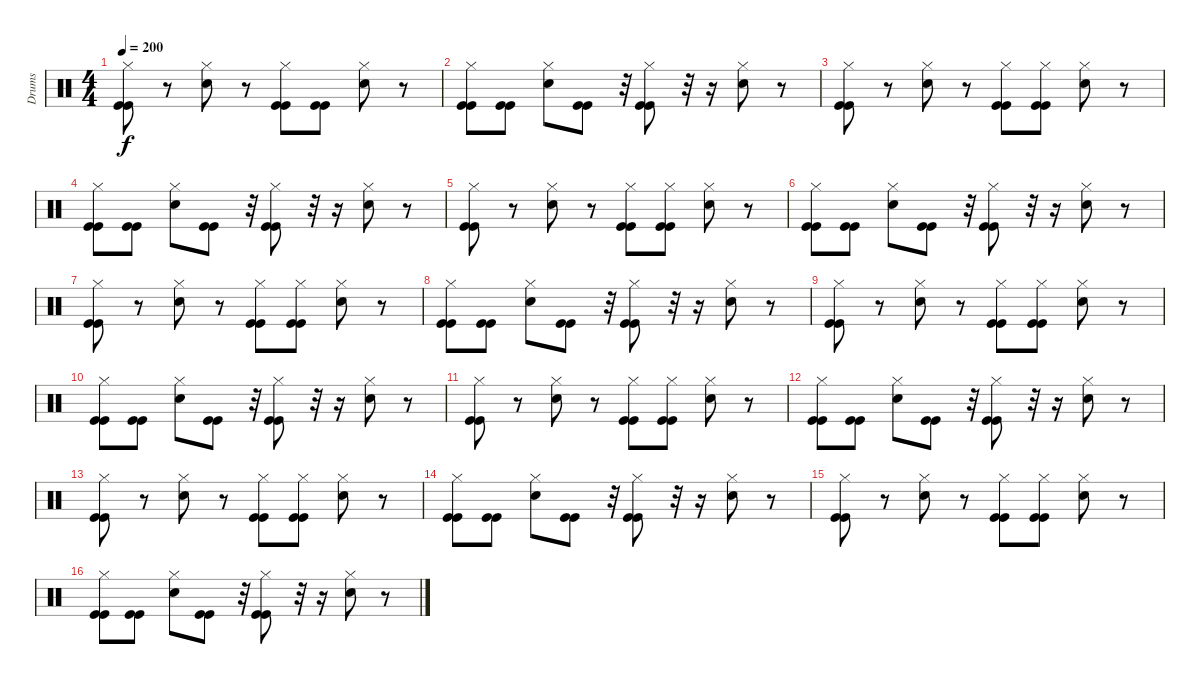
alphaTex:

\track ("Drums" "Drums") {instrument percussion}
\staff {score}
\articulation defaults
\ts (4 4)
\tempo 200
\clef neutral
\ks c
("Hi-Hat (closed)" "Kick (hit)" "Kick (hit)").8{dy f} r.8 ("Hi-Hat (closed)" "Electric Snare (hit)").8 r.8 ("Hi-Hat (closed)" "Kick (hit)" "Kick (hit)").8 ("Kick (hit)" "Kick (hit)").8 ("Hi-Hat (closed)" "Electric Snare (hit)").8 r.8 |
("Hi-Hat (closed)" "Kick (hit)" "Kick (hit)").8 ("Kick (hit)" "Kick (hit)").8 ("Hi-Hat (closed)" "Electric Snare (hit)").8 ("Kick (hit)" "Kick (hit)").8 r.32 ("Hi-Hat (closed)" "Kick (hit)" "Kick (hit)").8 r.32 r.16 ("Hi-Hat (closed)" "Electric Snare (hit)").8 r.8 |
("Hi-Hat (closed)" "Kick (hit)" "Kick (hit)").8 r.8 ("Hi-Hat (closed)" "Electric Snare (hit)").8 r.8 ("Hi-Hat (closed)" "Kick (hit)" "Kick (hit)").8 ("Hi-Hat (closed)" "Kick (hit)" "Kick (hit)").8 ("Hi-Hat (closed)" "Electric Snare (hit)").8 r.8 |
("Hi-Hat (closed)" "Kick (hit)" "Kick (hit)").8 ("Kick (hit)" "Kick (hit)").8 ("Hi-Hat (closed)" "Electric Snare (hit)").8 ("Kick (hit)" "Kick (hit)").8 r.32 ("Hi-Hat (closed)" "Kick (hit)" "Kick (hit)").8 r.32 r.16 ("Hi-Hat (closed)" "Electric Snare (hit)").8 r.8 |
("Hi-Hat (closed)" "Kick (hit)" "Kick (hit)").8 r.8 ("Hi-Hat (closed)" "Electric Snare (hit)").8 r.8 ("Hi-Hat (closed)" "Kick (hit)" "Kick (hit)").8 ("Hi-Hat (closed)" "Kick (hit)" "Kick (hit)").8 ("Hi-Hat (closed)" "Electric Snare (hit)").8 r.8 |
("Hi-Hat (closed)" "Kick (hit)" "Kick (hit)").8 ("Kick (hit)" "Kick (hit)").8 ("Hi-Hat (closed)" "Electric Snare (hit)").8 ("Kick (hit)" "Kick (hit)").8 r.32 ("Hi-Hat (closed)" "Kick (hit)" "Kick (hit)").8 r.32 r.16 ("Hi-Hat (closed)" "Electric Snare (hit)").8 r.8 |
("Hi-Hat (closed)" "Kick (hit)" "Kick (hit)").8 r.8 ("Hi-Hat (closed)" "Electric Snare (hit)").8 r.8 ("Hi-Hat (closed)" "Kick (hit)" "Kick (hit)").8 ("Hi-Hat (closed)" "Kick (hit)" "Kick (hit)").8 ("Hi-Hat (closed)" "Electric Snare (hit)").8 r.8 |
("Hi-Hat (closed)" "Kick (hit)" "Kick (hit)").8 ("Kick (hit)" "Kick (hit)").8 ("Hi-Hat (closed)" "Electric Snare (hit)").8 ("Kick (hit)" "Kick (hit)").8 r.32 ("Hi-Hat (closed)" "Kick (hit)" "Kick (hit)").8 r.32 r.16 ("Hi-Hat (closed)" "Electric Snare (hit)").8 r.8 |
("Hi-Hat (closed)" "Kick (hit)" "Kick (hit)").8 r.8 ("Hi-Hat (closed)" "Electric Snare (hit)").8 r.8 ("Hi-Hat (closed)" "Kick (hit)" "Kick (hit)").8 ("Hi-Hat (closed)" "Kick (hit)" "Kick (hit)").8 ("Hi-Hat (closed)" "Electric Snare (hit)").8 r.8 |
("Hi-Hat (closed)" "Kick (hit)" "Kick (hit)").8 ("Kick (hit)" "Kick (hit)").8 ("Hi-Hat (closed)" "Electric Snare (hit)").8 ("Kick (hit)" "Kick (hit)").8 r.32 ("Hi-Hat (closed)" "Kick (hit)" "Kick (hit)").8 r.32 r.16 ("Hi-Hat (closed)" "Electric Snare (hit)").8 r.8 |
("Hi-Hat (closed)" "Kick (hit)" "Kick (hit)").8 r.8 ("Hi-Hat (closed)" "Electric Snare (hit)").8 r.8 ("Hi-Hat (closed)" "Kick (hit)" "Kick (hit)").8 ("Hi-Hat (closed)" "Kick (hit)" "Kick (hit)").8 ("Hi-Hat (closed)" "Electric Snare (hit)").8 r.8 |
("Hi-Hat (closed)" "Kick (hit)" "Kick (hit)").8 ("Kick (hit)" "Kick (hit)").8 ("Hi-Hat (closed)" "Electric Snare (hit)").8 ("Kick (hit)" "Kick (hit)").8 r.32 ("Hi-Hat (closed)" "Kick (hit)" "Kick (hit)").8 r.32 r.16 ("Hi-Hat (closed)" "Electric Snare (hit)").8 r.8 |
("Hi-Hat (closed)" "Kick (hit)" "Kick (hit)").8 r.8 ("Hi-Hat (closed)" "Electric Snare (hit)").8 r.8 ("Hi-Hat (closed)" "Kick (hit)" "Kick (hit)").8 ("Hi-Hat (closed)" "Kick (hit)" "Kick (hit)").8 ("Hi-Hat (closed)" "Electric Snare (hit)").8 r.8 |
("Hi-Hat (closed)" "Kick (hit)" "Kick (hit)").8 ("Kick (hit)" "Kick (hit)").8 ("Hi-Hat (closed)" "Electric Snare (hit)").8 ("Kick (hit)" "Kick (hit)").8 r.32 ("Hi-Hat (closed)" "Kick (hit)" "Kick (hit)").8 r.32 r.16 ("Hi-Hat (closed)" "Electric Snare (hit)").8 r.8 |
("Hi-Hat (closed)" "Kick (hit)" "Kick (hit)").8 r.8 ("Hi-Hat (closed)" "Electric Snare (hit)").8 r.8 ("Hi-Hat (closed)" "Kick (hit)" "Kick (hit)").8 ("Hi-Hat (closed)" "Kick (hit)" "Kick (hit)").8 ("Hi-Hat (closed)" "Electric Snare (hit)").8 r.8 |
("Hi-Hat (closed)" "Kick (hit)" "Kick (hit)").8 ("Kick (hit)" "Kick (hit)").8 ("Hi-Hat (closed)" "Electric Snare (hit)").8 ("Kick (hit)" "Kick (hit)").8 r.32 ("Hi-Hat (closed)" "Kick (hit)" "Kick (hit)").8 r.32 r.16 ("Hi-Hat (closed)" "Electric Snare (hit)").8 r.8
